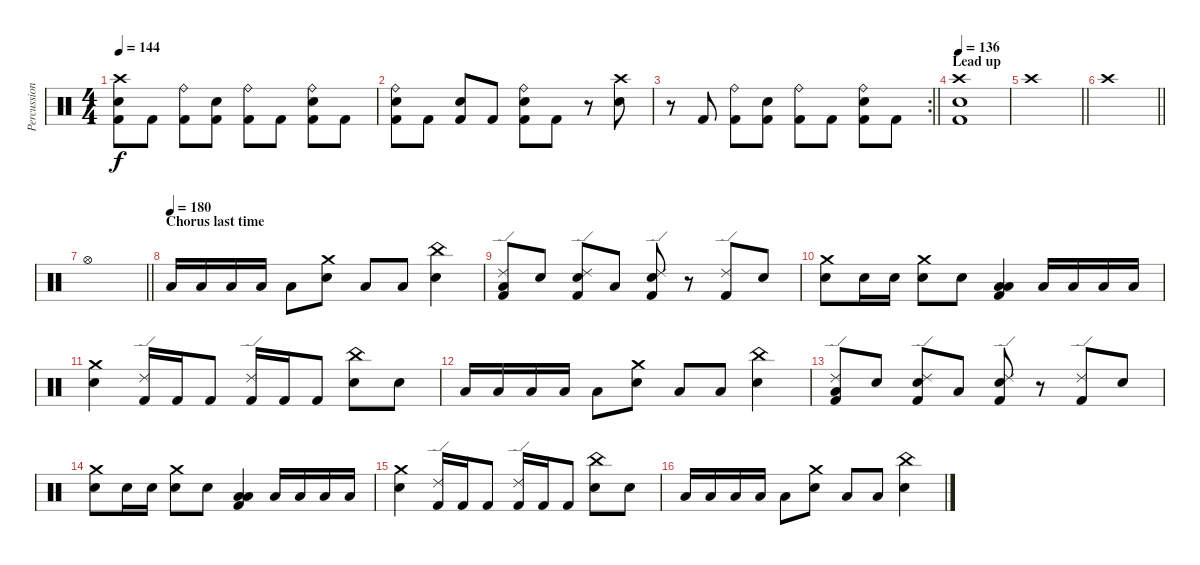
\track ("Percussion" "Percussion") {instrument percussion}
\staff {score}
\articulation defaults
\ts (4 4)
\tempo 144
\clef neutral
\ks c
("Crash high (hit)" "Snare (hit) 2" "Kick (hit) 2").8{dy f} "Kick (hit) 2".8 ("Ride (bell)" "Kick (hit) 2").8 ("Snare (hit) 2" "Kick (hit) 2").8 ("Ride (bell)" "Kick (hit) 2").8 "Kick (hit) 2".8 ("Ride (bell)" "Snare (hit) 2" "Kick (hit) 2").8 "Kick (hit) 2".8 |
("Ride (bell)" "Snare (hit) 2" "Kick (hit) 2").8 "Kick (hit) 2".8 ("Snare (hit) 2" "Kick (hit) 2").8 "Kick (hit) 2".8 ("Ride (bell)" "Snare (hit) 2" "Kick (hit) 2").8 "Kick (hit) 2".8 r.8 ("Crash high (hit)" "Snare (hit) 2").8 |
\rc 2
\barLineRight lightlight
r.8 "Kick (hit) 2".8 ("Ride (bell)" "Kick (hit) 2").8 ("Snare (hit) 2" "Kick (hit) 2").8 ("Ride (bell)" "Kick (hit) 2").8 "Kick (hit) 2".8 ("Ride (bell)" "Snare (hit) 2" "Kick (hit) 2").8 "Kick (hit) 2".8 |
\section ("" "Lead up")
\tempo 136
("Crash high (hit)" "Electric Snare (hit)" "Kick (hit) 2").1 |
\barLineRight lightlight "Crash high (hit)".1
|
\barLineRight lightlight "Crash high (hit)".1
|
\barLineRight lightlight "Hi-Hat (open)".1
|
\section ("" "Chorus last time")
\tempo (180)
"Low Tom (hit)".16 "Low Tom (hit)".16 "Low Floor Tom (hit)".16 "Low Floor Tom (hit)".16 "Low Floor Tom (hit)".8 ("Crash medium (hit)" "Electric Snare (hit)").8 "Low Tom (hit)".8 "Low Tom (hit)".8 ("China (hit)" "Electric Snare (hit)").4 |
("Ride (edge) 2" "Low Floor Tom (hit)" "Kick (hit) 2").8 "Electric Snare (hit)".8 ("Ride (edge) 2" "Electric Snare (hit)" "Kick (hit) 2").8 "Low Floor Tom (hit)".8 ("Ride (edge) 2" "Electric Snare (hit)" "Kick (hit) 2").8 r.8 ("Ride (edge) 2" "Kick (hit) 2").8 "Electric Snare (hit)".8 |
("Crash medium (hit)" "Electric Snare (hit)").8 "Electric Snare (hit)".16 "Electric Snare (hit)".16 ("Crash medium (hit)" "Electric Snare (hit)").8 "Electric Snare (hit)".8 ("Low Tom (hit)" "Low Floor Tom (hit)" "Kick (hit) 2").4 "Low Tom (hit)".16 "Low Tom (hit)".16 "Low Floor Tom (hit)".16 "Low Floor Tom (hit)".16 |
("Crash medium (hit)" "Electric Snare (hit)").4 ("Ride (edge) 2" "Kick (hit) 2").16 "Kick (hit) 2".16 "Kick (hit) 2".8 ("Ride (edge) 2" "Kick (hit) 2").16 "Kick (hit) 2".16 "Kick (hit) 2".8 ("China (hit)" "Electric Snare (hit)").8 "Electric Snare (hit)".8 |
"Low Tom (hit)".16 "Low Tom (hit)".16 "Low Floor Tom (hit)".16 "Low Floor Tom (hit)".16 "Low Floor Tom (hit)".8 ("Crash medium (hit)" "Electric Snare (hit)").8 "Low Tom (hit)".8 "Low Tom (hit)".8 ("China (hit)" "Electric Snare (hit)").4 |
("Ride (edge) 2" "Low Floor Tom (hit)" "Kick (hit) 2").8 "Electric Snare (hit)".8 ("Ride (edge) 2" "Electric Snare (hit)" "Kick (hit) 2").8 "Low Floor Tom (hit)".8 ("Ride (edge) 2" "Electric Snare (hit)" "Kick (hit) 2").8 r.8 ("Ride (edge) 2" "Kick (hit) 2").8 "Electric Snare (hit)".8 |
("Crash medium (hit)" "Electric Snare (hit)").8 "Electric Snare (hit)".16 "Electric Snare (hit)".16 ("Crash medium (hit)" "Electric Snare (hit)").8 "Electric Snare (hit)".8 ("Low Tom (hit)" "Low Floor Tom (hit)" "Kick (hit) 2").4 "Low Tom (hit)".16 "Low Tom (hit)".16 "Low Floor Tom (hit)".16 "Low Floor Tom (hit)".16 |
("Crash medium (hit)" "Electric Snare (hit)").4 ("Ride (edge) 2" "Kick (hit) 2").16 "Kick (hit) 2".16 "Kick (hit) 2".8 ("Ride (edge) 2" "Kick (hit) 2").16 "Kick (hit) 2".16 "Kick (hit) 2".8 ("China (hit)" "Electric Snare (hit)").8 "Electric Snare (hit)".8 |
"Low Tom (hit)".16 "Low Tom (hit)".16 "Low Floor Tom (hit)".16 "Low Floor Tom (hit)".16 "Low Floor Tom (hit)".8 ("Crash medium (hit)" "Electric Snare (hit)").8 "Low Tom (hit)".8 "Low Tom (hit)".8 ("China (hit)" "Electric Snare (hit)").4
